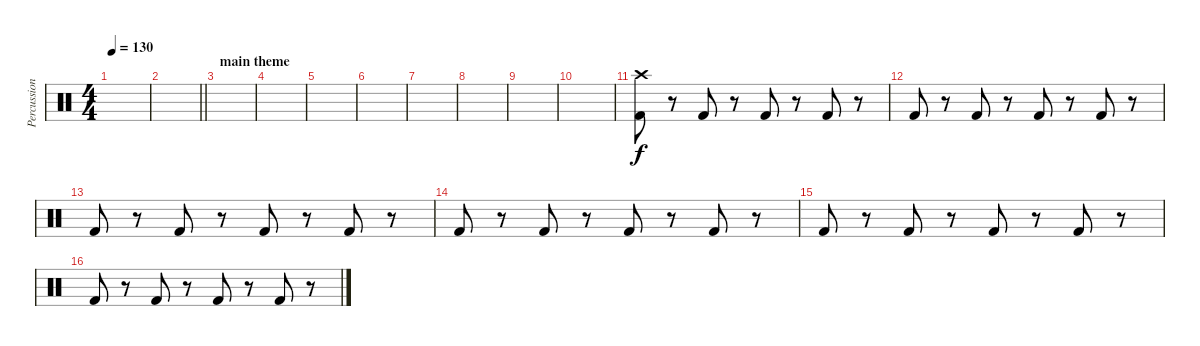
\track ("Percussion" "Percussion") {instrument percussion}
\staff {score}
\articulation defaults
\ts (4 4)
\tempo 130
\clef neutral
\ks c
|
\barLineRight lightlight
|
\section ("" "main theme")
|
|
|
|
|
|
|
|
("Crash high (hit)" "Kick (hit) 2").8{dy f} r.8 "Kick (hit) 2".8 r.8 "Kick (hit) 2".8 r.8 "Kick (hit) 2".8 r.8 |
"Kick (hit) 2".8 r.8 "Kick (hit) 2".8 r.8 "Kick (hit) 2".8 r.8 "Kick (hit) 2".8 r.8 |
"Kick (hit) 2".8 r.8 "Kick (hit) 2".8 r.8 "Kick (hit) 2".8 r.8 "Kick (hit) 2".8 r.8 |
"Kick (hit) 2".8 r.8 "Kick (hit) 2".8 r.8 "Kick (hit) 2".8 r.8 "Kick (hit) 2".8 r.8 |
"Kick (hit) 2".8 r.8 "Kick (hit) 2".8 r.8 "Kick (hit) 2".8 r.8 "Kick (hit) 2".8 r.8 |
"Kick (hit) 2".8 r.8 "Kick (hit) 2".8 r.8 "Kick (hit) 2".8 r.8 "Kick (hit) 2".8 r.8
